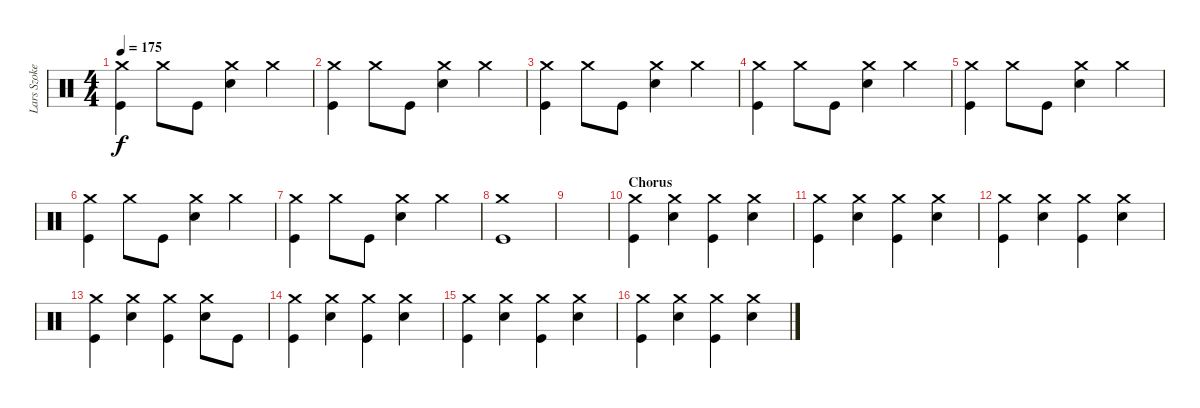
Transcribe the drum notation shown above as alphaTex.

\track ("Lars Szoke" "Lars Szoke") {instrument percussion}
\staff {score}
\articulation defaults
\ts (4 4)
\tempo 175
\clef neutral
\ks c
("Crash medium (hit)" "Kick (hit)").4{dy f} "Crash medium (hit)".8 "Kick (hit)".8 ("Crash medium (hit)" "Electric Snare (hit)").4 "Crash medium (hit)".4 |
("Crash medium (hit)" "Kick (hit)").4 "Crash medium (hit)".8 "Kick (hit)".8 ("Crash medium (hit)" "Electric Snare (hit)").4 "Crash medium (hit)".4 |
("Crash medium (hit)" "Kick (hit)").4 "Crash medium (hit)".8 "Kick (hit)".8 ("Crash medium (hit)" "Electric Snare (hit)").4 "Crash medium (hit)".4 |
("Crash medium (hit)" "Kick (hit)").4 "Crash medium (hit)".8 "Kick (hit)".8 ("Crash medium (hit)" "Electric Snare (hit)").4 "Crash medium (hit)".4 |
("Crash medium (hit)" "Kick (hit)").4 "Crash medium (hit)".8 "Kick (hit)".8 ("Crash medium (hit)" "Electric Snare (hit)").4 "Crash medium (hit)".4 |
("Crash medium (hit)" "Kick (hit)").4 "Crash medium (hit)".8 "Kick (hit)".8 ("Crash medium (hit)" "Electric Snare (hit)").4 "Crash medium (hit)".4 |
("Crash medium (hit)" "Kick (hit)").4 "Crash medium (hit)".8 "Kick (hit)".8 ("Crash medium (hit)" "Electric Snare (hit)").4 "Crash medium (hit)".4 |
("Crash medium (hit)" "Kick (hit)").1 |
|
\section ("" "Chorus")
("Crash medium (hit)" "Kick (hit)").4 ("Crash medium (hit)" "Electric Snare (hit)").4 ("Crash medium (hit)" "Kick (hit)").4 ("Crash medium (hit)" "Electric Snare (hit)").4 |
("Crash medium (hit)" "Kick (hit)").4 ("Crash medium (hit)" "Electric Snare (hit)").4 ("Crash medium (hit)" "Kick (hit)").4 ("Crash medium (hit)" "Electric Snare (hit)").4 |
("Crash medium (hit)" "Kick (hit)").4 ("Crash medium (hit)" "Electric Snare (hit)").4 ("Crash medium (hit)" "Kick (hit)").4 ("Crash medium (hit)" "Electric Snare (hit)").4 |
("Crash medium (hit)" "Kick (hit)").4 ("Crash medium (hit)" "Electric Snare (hit)").4 ("Crash medium (hit)" "Kick (hit)").4 ("Crash medium (hit)" "Electric Snare (hit)").8 "Kick (hit)".8 |
("Crash medium (hit)" "Kick (hit)").4 ("Crash medium (hit)" "Electric Snare (hit)").4 ("Crash medium (hit)" "Kick (hit)").4 ("Crash medium (hit)" "Electric Snare (hit)").4 |
("Crash medium (hit)" "Kick (hit)").4 ("Crash medium (hit)" "Electric Snare (hit)").4 ("Crash medium (hit)" "Kick (hit)").4 ("Crash medium (hit)" "Electric Snare (hit)").4 |
("Crash medium (hit)" "Kick (hit)").4 ("Crash medium (hit)" "Electric Snare (hit)").4 ("Crash medium (hit)" "Kick (hit)").4 ("Crash medium (hit)" "Electric Snare (hit)").4
